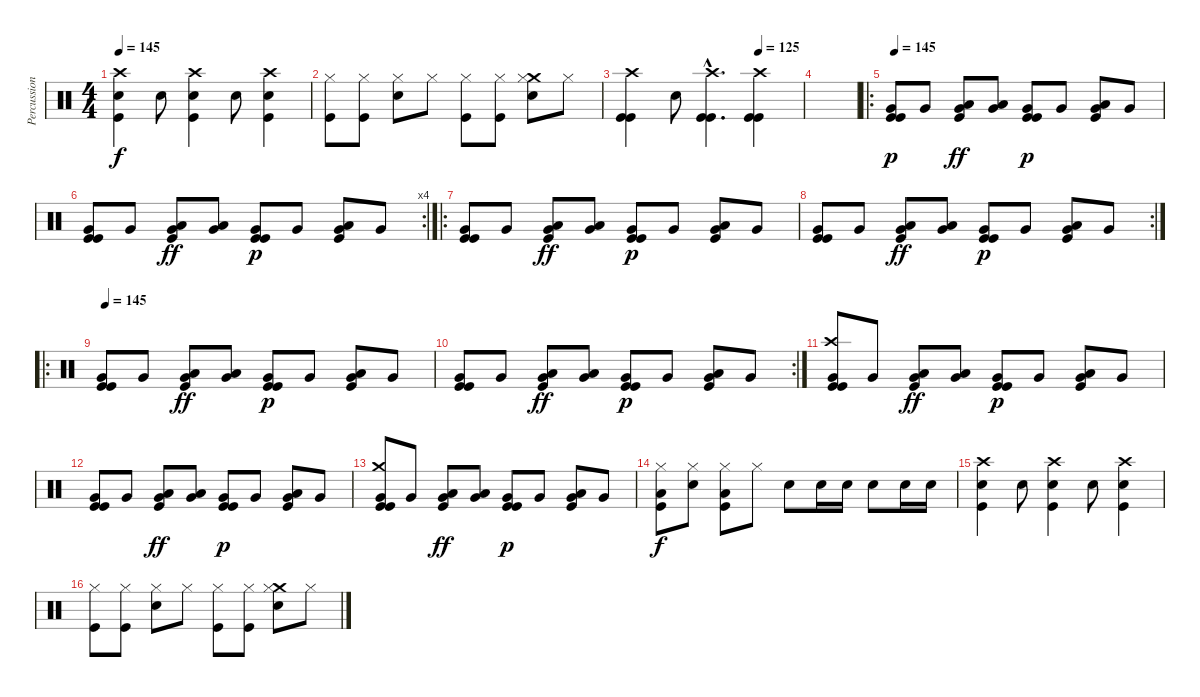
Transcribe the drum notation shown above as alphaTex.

\track ("Percussions" "Percussion") {instrument percussion}
\staff {score}
\articulation defaults
\ts (4 4)
\tempo 145
\clef neutral
\ks c
("Kick (hit)" "Snare (hit) 2" "Crash high (hit)").4{dy f} "Snare (hit) 2".8 ("Kick (hit)" "Snare (hit) 2" "Crash high (hit)").4 "Snare (hit) 2".8 ("Kick (hit)" "Snare (hit) 2" "Crash high (hit)").4 |
("Kick (hit)" "Hi-Hat (closed)").8 ("Kick (hit)" "Hi-Hat (closed)").8 ("Snare (hit) 2" "Hi-Hat (closed)").8 "Hi-Hat (closed)".8 ("Kick (hit)" "Hi-Hat (closed)").8 ("Kick (hit)" "Hi-Hat (closed)").8 ("Crash medium (hit)" "Snare (hit) 2" "Hi-Hat (closed)").8 "Hi-Hat (closed)".8 |
\tempo (125 0.75)
("Kick (hit)" "Kick (hit)" "Crash high (hit)").4 "Snare (hit) 2".8 ("Kick (hit)"{hac} "Crash high (hit)"{hac} "Kick (hit)"{hac}).4{d} ("Kick (hit)" "Crash high (hit)" "Kick (hit)").4 |
|
\ro
\tempo 145
("Very Low Tom (hit)" "Kick (hit)" "Kick (hit)").8{dy p} "Very Low Tom (hit)".8 ("Very Low Tom (hit)" "Kick (hit)" "Low Tom (hit)").8{dy ff} ("Very Low Tom (hit)" "Low Tom (hit)").8 ("Very Low Tom (hit)" "Kick (hit)" "Kick (hit)").8{dy p} "Very Low Tom (hit)".8 ("Very Low Tom (hit)" "Kick (hit)" "Low Tom (hit)").8 "Very Low Tom (hit)".8 |
\rc 4
("Very Low Tom (hit)" "Kick (hit)" "Kick (hit)").8 "Very Low Tom (hit)".8 ("Very Low Tom (hit)" "Kick (hit)" "Low Tom (hit)").8{dy ff} ("Very Low Tom (hit)" "Low Tom (hit)").8 ("Very Low Tom (hit)" "Kick (hit)" "Kick (hit)").8{dy p} "Very Low Tom (hit)".8 ("Very Low Tom (hit)" "Kick (hit)" "Low Tom (hit)").8 "Very Low Tom (hit)".8 |
\ro
("Very Low Tom (hit)" "Kick (hit)" "Kick (hit)").8 "Very Low Tom (hit)".8 ("Very Low Tom (hit)" "Kick (hit)" "Low Tom (hit)").8{dy ff} ("Very Low Tom (hit)" "Low Tom (hit)").8 ("Very Low Tom (hit)" "Kick (hit)" "Kick (hit)").8{dy p} "Very Low Tom (hit)".8 ("Very Low Tom (hit)" "Kick (hit)" "Low Tom (hit)").8 "Very Low Tom (hit)".8 |
\rc 2
("Very Low Tom (hit)" "Kick (hit)" "Kick (hit)").8 "Very Low Tom (hit)".8 ("Very Low Tom (hit)" "Kick (hit)" "Low Tom (hit)").8{dy ff} ("Very Low Tom (hit)" "Low Tom (hit)").8 ("Very Low Tom (hit)" "Kick (hit)" "Kick (hit)").8{dy p} "Very Low Tom (hit)".8 ("Very Low Tom (hit)" "Kick (hit)" "Low Tom (hit)").8 "Very Low Tom (hit)".8 |
\ro
\tempo 145
("Very Low Tom (hit)" "Kick (hit)" "Kick (hit)").8 "Very Low Tom (hit)".8 ("Very Low Tom (hit)" "Kick (hit)" "Low Tom (hit)").8{dy ff} ("Very Low Tom (hit)" "Low Tom (hit)").8 ("Very Low Tom (hit)" "Kick (hit)" "Kick (hit)").8{dy p} "Very Low Tom (hit)".8 ("Very Low Tom (hit)" "Kick (hit)" "Low Tom (hit)").8 "Very Low Tom (hit)".8 |
\rc 2
("Very Low Tom (hit)" "Kick (hit)" "Kick (hit)").8 "Very Low Tom (hit)".8 ("Very Low Tom (hit)" "Kick (hit)" "Low Tom (hit)").8{dy ff} ("Very Low Tom (hit)" "Low Tom (hit)").8 ("Very Low Tom (hit)" "Kick (hit)" "Kick (hit)").8{dy p} "Very Low Tom (hit)".8 ("Very Low Tom (hit)" "Kick (hit)" "Low Tom (hit)").8 "Very Low Tom (hit)".8 |
("Very Low Tom (hit)" "Kick (hit)" "Kick (hit)" "Crash high (hit)").8 "Very Low Tom (hit)".8 ("Very Low Tom (hit)" "Kick (hit)" "Low Tom (hit)").8{dy ff} ("Very Low Tom (hit)" "Low Tom (hit)").8 ("Very Low Tom (hit)" "Kick (hit)" "Kick (hit)").8{dy p} "Very Low Tom (hit)".8 ("Very Low Tom (hit)" "Kick (hit)" "Low Tom (hit)").8 "Very Low Tom (hit)".8 |
("Very Low Tom (hit)" "Kick (hit)" "Kick (hit)").8 "Very Low Tom (hit)".8 ("Very Low Tom (hit)" "Kick (hit)" "Low Tom (hit)").8{dy ff} ("Very Low Tom (hit)" "Low Tom (hit)").8 ("Very Low Tom (hit)" "Kick (hit)" "Kick (hit)").8{dy p} "Very Low Tom (hit)".8 ("Very Low Tom (hit)" "Kick (hit)" "Low Tom (hit)").8 "Very Low Tom (hit)".8 |
("Very Low Tom (hit)" "Kick (hit)" "Kick (hit)" "Crash medium (hit)").8 "Very Low Tom (hit)".8 ("Very Low Tom (hit)" "Kick (hit)" "Low Tom (hit)").8{dy ff} ("Very Low Tom (hit)" "Low Tom (hit)").8 ("Very Low Tom (hit)" "Kick (hit)" "Kick (hit)").8{dy p} "Very Low Tom (hit)".8 ("Very Low Tom (hit)" "Kick (hit)" "Low Tom (hit)").8 "Very Low Tom (hit)".8 |
("Kick (hit)" "Low Floor Tom (hit)" "Hi-Hat (closed)").8{dy f} ("Snare (hit) 2" "Hi-Hat (closed)").8 ("Kick (hit)" "Low Floor Tom (hit)" "Hi-Hat (closed)").8 "Hi-Hat (closed)".8 "Snare (hit) 2".8 "Snare (hit) 2".16 "Snare (hit) 2".16 "Snare (hit) 2".8 "Snare (hit) 2".16 "Snare (hit) 2".16 |
("Kick (hit)" "Snare (hit) 2" "Crash high (hit)").4 "Snare (hit) 2".8 ("Kick (hit)" "Snare (hit) 2" "Crash high (hit)").4 "Snare (hit) 2".8 ("Kick (hit)" "Snare (hit) 2" "Crash high (hit)").4 |
("Kick (hit)" "Hi-Hat (closed)").8 ("Kick (hit)" "Hi-Hat (closed)").8 ("Snare (hit) 2" "Hi-Hat (closed)").8 "Hi-Hat (closed)".8 ("Kick (hit)" "Hi-Hat (closed)").8 ("Kick (hit)" "Hi-Hat (closed)").8 ("Crash medium (hit)" "Snare (hit) 2" "Hi-Hat (closed)").8 "Hi-Hat (closed)".8
